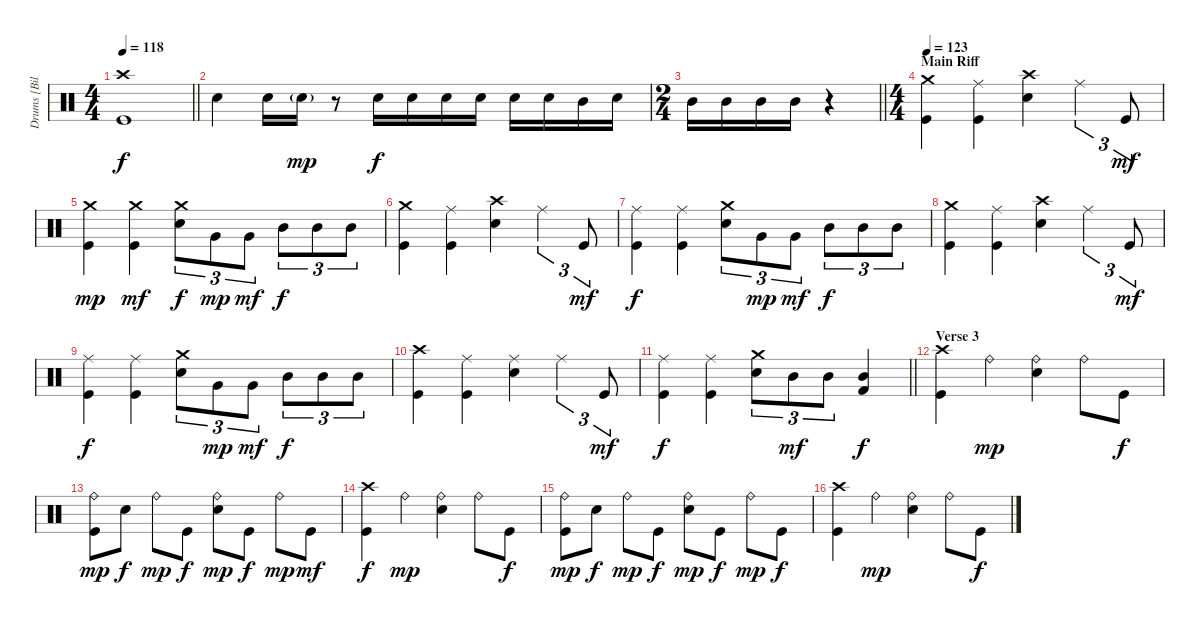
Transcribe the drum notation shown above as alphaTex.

\track ("Drums [Bill Ward]" "Drums [Bil") {instrument percussion}
\staff {score}
\articulation defaults
\ts (4 4)
\tempo 118
\clef neutral
\barLineRight lightlight
\ks c
("Crash high (hit)" "Kick (hit)").1{dy f} |
\section ("" "")
"Electric Snare (hit)".4 "Electric Snare (hit)".16 "Electric Snare (hit)"{g}.16{dy mp} r.8 "Electric Snare (hit)".16{dy f} "Electric Snare (hit)".16 "Electric Snare (hit)".16 "Electric Snare (hit)".16 "Electric Snare (hit)".16 "Electric Snare (hit)".16 "Mid Tom (hit)".16 "Electric Snare (hit)".16 |
\ts (2 4)
\barLineRight lightlight "Mid Tom (hit)".16 "Mid Tom (hit)".16 "Mid Tom (hit)".16 "Mid Tom (hit)".16
r.4 |
\ts (4 4)
\section ("" "Main Riff")
\tempo 123
("Crash medium (hit)" "Kick (hit)").4 ("Ride (middle)" "Kick (hit)").4 ("Crash high (hit)" "Electric Snare (hit)").4 "Ride (middle)".4{tu (3 2)} "Kick (hit)".8{tu (3 2) dy mf} |
("Crash medium (hit)" "Kick (hit)").4{dy mp} ("Crash medium (hit)" "Kick (hit)").4{dy mf} ("Crash medium (hit)" "Electric Snare (hit)").8{tu (3 2) dy f} "Very Low Tom (hit)".8{tu (3 2) dy mp} "Very Low Tom (hit)".8{tu (3 2) dy mf} "Mid Tom (hit)".8{tu (3 2) dy f} "Mid Tom (hit)".8{tu (3 2)} "Mid Tom (hit)".8{tu (3 2)} |
("Crash medium (hit)" "Kick (hit)").4 ("Ride (middle)" "Kick (hit)").4 ("Crash high (hit)" "Electric Snare (hit)").4 "Ride (middle)".4{tu (3 2)} "Kick (hit)".8{tu (3 2) dy mf} |
("Ride (middle)" "Kick (hit)").4{dy f} ("Ride (middle)" "Kick (hit)").4 ("Crash medium (hit)" "Electric Snare (hit)").8{tu (3 2)} "Very Low Tom (hit)".8{tu (3 2) dy mp} "Very Low Tom (hit)".8{tu (3 2) dy mf} "Mid Tom (hit)".8{tu (3 2) dy f} "Mid Tom (hit)".8{tu (3 2)} "Mid Tom (hit)".8{tu (3 2)} |
("Crash medium (hit)" "Kick (hit)").4 ("Ride (middle)" "Kick (hit)").4 ("Crash high (hit)" "Electric Snare (hit)").4 "Ride (middle)".4{tu (3 2)} "Kick (hit)".8{tu (3 2) dy mf} |
("Ride (middle)" "Kick (hit)").4{dy f} ("Ride (middle)" "Kick (hit)").4 ("Crash medium (hit)" "Electric Snare (hit)").8{tu (3 2)} "Very Low Tom (hit)".8{tu (3 2) dy mp} "Very Low Tom (hit)".8{tu (3 2) dy mf} "Mid Tom (hit)".8{tu (3 2) dy f} "Mid Tom (hit)".8{tu (3 2)} "Mid Tom (hit)".8{tu (3 2)} |
("Crash high (hit)" "Kick (hit)").4 ("Ride (middle)" "Kick (hit)").4 ("Ride (middle)" "Electric Snare (hit)").4 "Ride (middle)".4{tu (3 2)} "Kick (hit)".8{tu (3 2) dy mf} |
\barLineRight lightlight
("Ride (middle)" "Kick (hit)").4{dy f} ("Ride (middle)" "Kick (hit)").4 ("Crash medium (hit)" "Electric Snare (hit)").8{tu (3 2)} "Mid Tom (hit)".8{tu (3 2) dy mf} "Mid Tom (hit)".8{tu (3 2)} ("Mid Tom (hit)" "Kick (hit) 2").4{dy f} |
\section ("" "Verse 3")
("Crash high (hit)" "Kick (hit)").4 "Ride (bell)".4{dy mp} ("Ride (bell)" "Electric Snare (hit)").4 "Ride (bell)".8 "Kick (hit)".8{dy f} |
("Ride (bell)" "Kick (hit)").8{dy mp} "Electric Snare (hit)".8{dy f} "Ride (bell)".8{dy mp} "Kick (hit)".8{dy f} ("Ride (bell)" "Electric Snare (hit)").8{dy mp} "Kick (hit)".8{dy f} "Ride (bell)".8{dy mp} "Kick (hit)".8{dy mf} |
("Crash high (hit)" "Kick (hit)").4{dy f} "Ride (bell)".4{dy mp} ("Ride (bell)" "Electric Snare (hit)").4 "Ride (bell)".8 "Kick (hit)".8{dy f} |
("Ride (bell)" "Kick (hit)").8{dy mp} "Electric Snare (hit)".8{dy f} "Ride (bell)".8{dy mp} "Kick (hit)".8{dy f} ("Ride (bell)" "Electric Snare (hit)").8{dy mp} "Kick (hit)".8{dy f} "Ride (bell)".8{dy mp} "Kick (hit)".8{dy f} |
("Crash high (hit)" "Kick (hit)").4 "Ride (bell)".4{dy mp} ("Ride (bell)" "Electric Snare (hit)").4 "Ride (bell)".8 "Kick (hit)".8{dy f}
